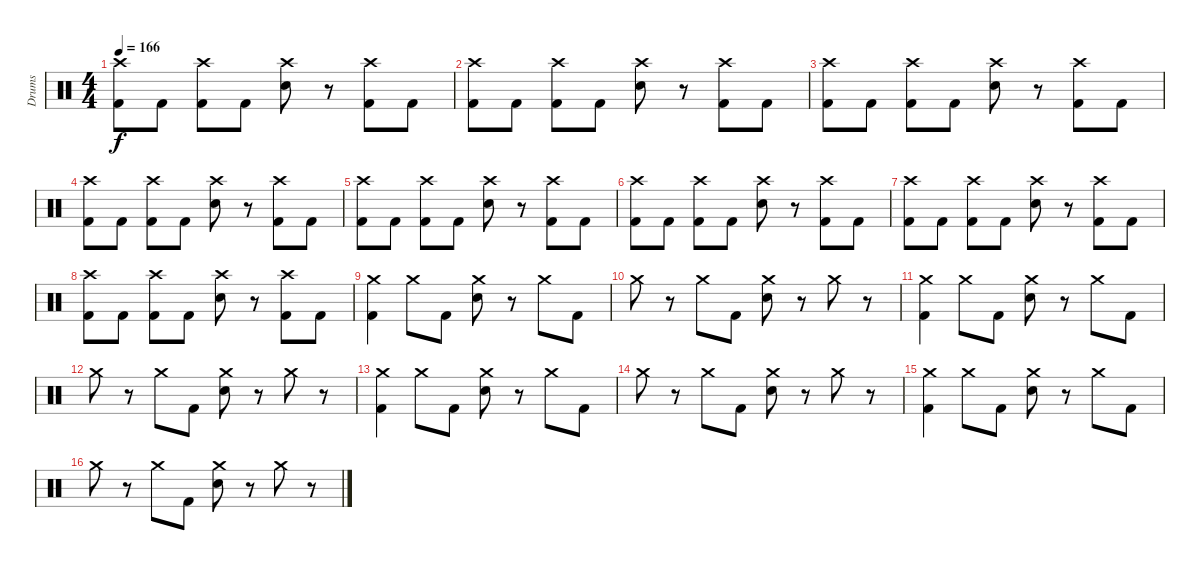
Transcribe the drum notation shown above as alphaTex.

\track ("Drums" "Drums") {instrument percussion}
\staff {score}
\articulation defaults
\ts (4 4)
\tempo 166
\clef neutral
\ks c
("Crash high (hit)" "Kick (hit) 2").8{dy f} "Kick (hit) 2".8 ("Crash high (hit)" "Kick (hit) 2").8 "Kick (hit) 2".8 ("Crash high (hit)" "Snare (hit) 2").8 r.8 ("Crash high (hit)" "Kick (hit) 2").8 "Kick (hit) 2".8 |
("Crash high (hit)" "Kick (hit) 2").8 "Kick (hit) 2".8 ("Crash high (hit)" "Kick (hit) 2").8 "Kick (hit) 2".8 ("Crash high (hit)" "Snare (hit) 2").8 r.8 ("Crash high (hit)" "Kick (hit) 2").8 "Kick (hit) 2".8 |
("Crash high (hit)" "Kick (hit) 2").8 "Kick (hit) 2".8 ("Crash high (hit)" "Kick (hit) 2").8 "Kick (hit) 2".8 ("Crash high (hit)" "Snare (hit) 2").8 r.8 ("Crash high (hit)" "Kick (hit) 2").8 "Kick (hit) 2".8 |
("Crash high (hit)" "Kick (hit) 2").8 "Kick (hit) 2".8 ("Crash high (hit)" "Kick (hit) 2").8 "Kick (hit) 2".8 ("Crash high (hit)" "Snare (hit) 2").8 r.8 ("Crash high (hit)" "Kick (hit) 2").8 "Kick (hit) 2".8 |
("Crash high (hit)" "Kick (hit) 2").8 "Kick (hit) 2".8 ("Crash high (hit)" "Kick (hit) 2").8 "Kick (hit) 2".8 ("Crash high (hit)" "Snare (hit) 2").8 r.8 ("Crash high (hit)" "Kick (hit) 2").8 "Kick (hit) 2".8 |
("Crash high (hit)" "Kick (hit) 2").8 "Kick (hit) 2".8 ("Crash high (hit)" "Kick (hit) 2").8 "Kick (hit) 2".8 ("Crash high (hit)" "Snare (hit) 2").8 r.8 ("Crash high (hit)" "Kick (hit) 2").8 "Kick (hit) 2".8 |
("Crash high (hit)" "Kick (hit) 2").8 "Kick (hit) 2".8 ("Crash high (hit)" "Kick (hit) 2").8 "Kick (hit) 2".8 ("Crash high (hit)" "Snare (hit) 2").8 r.8 ("Crash high (hit)" "Kick (hit) 2").8 "Kick (hit) 2".8 |
("Crash high (hit)" "Kick (hit) 2").8 "Kick (hit) 2".8 ("Crash high (hit)" "Kick (hit) 2").8 "Kick (hit) 2".8 ("Crash high (hit)" "Snare (hit) 2").8 r.8 ("Crash high (hit)" "Kick (hit) 2").8 "Kick (hit) 2".8 |
("Crash medium (hit)" "Kick (hit) 2").4 "Crash medium (hit)".8 "Kick (hit) 2".8 ("Crash medium (hit)" "Snare (hit) 2").8 r.8 "Crash medium (hit)".8 "Kick (hit) 2".8 |
"Crash medium (hit)".8 r.8 "Crash medium (hit)".8 "Kick (hit) 2".8 ("Crash medium (hit)" "Snare (hit) 2").8 r.8 "Crash medium (hit)".8 r.8 |
("Crash medium (hit)" "Kick (hit) 2").4 "Crash medium (hit)".8 "Kick (hit) 2".8 ("Crash medium (hit)" "Snare (hit) 2").8 r.8 "Crash medium (hit)".8 "Kick (hit) 2".8 |
"Crash medium (hit)".8 r.8 "Crash medium (hit)".8 "Kick (hit) 2".8 ("Crash medium (hit)" "Snare (hit) 2").8 r.8 "Crash medium (hit)".8 r.8 |
("Crash medium (hit)" "Kick (hit) 2").4 "Crash medium (hit)".8 "Kick (hit) 2".8 ("Crash medium (hit)" "Snare (hit) 2").8 r.8 "Crash medium (hit)".8 "Kick (hit) 2".8 |
"Crash medium (hit)".8 r.8 "Crash medium (hit)".8 "Kick (hit) 2".8 ("Crash medium (hit)" "Snare (hit) 2").8 r.8 "Crash medium (hit)".8 r.8 |
("Crash medium (hit)" "Kick (hit) 2").4 "Crash medium (hit)".8 "Kick (hit) 2".8 ("Crash medium (hit)" "Snare (hit) 2").8 r.8 "Crash medium (hit)".8 "Kick (hit) 2".8 |
"Crash medium (hit)".8 r.8 "Crash medium (hit)".8 "Kick (hit) 2".8 ("Crash medium (hit)" "Snare (hit) 2").8 r.8 "Crash medium (hit)".8 r.8
